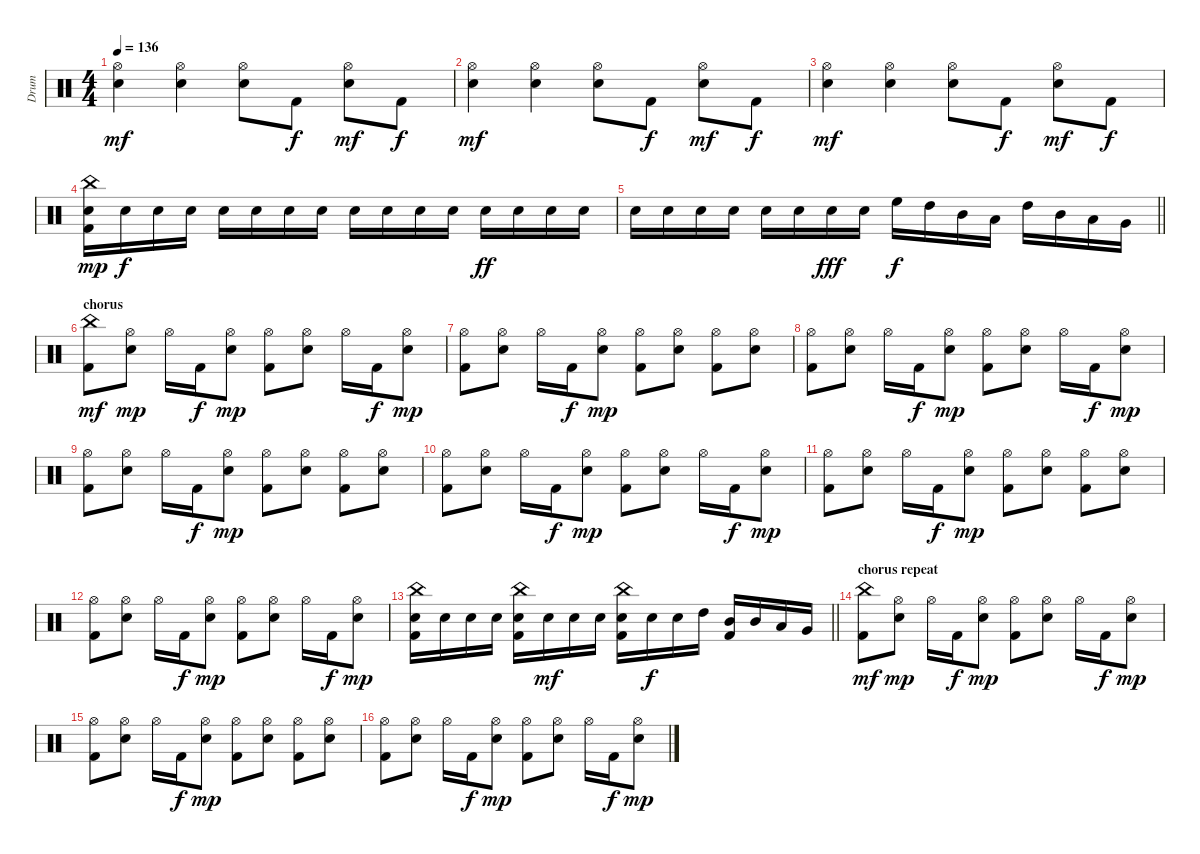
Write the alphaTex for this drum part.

\track ("Drum" "Drum") {instrument percussion}
\staff {score}
\articulation defaults
\ts (4 4)
\tempo 136
\clef neutral
\ks c
("Electric Snare (hit)" "Hi-Hat (open)").4{dy mf} ("Electric Snare (hit)" "Hi-Hat (open)").4 ("Electric Snare (hit)" "Hi-Hat (open)").8 "Kick (hit) 2".8{dy f} ("Electric Snare (hit)" "Hi-Hat (open)").8{dy mf} "Kick (hit) 2".8{dy f} |
("Electric Snare (hit)" "Hi-Hat (open)").4{dy mf} ("Electric Snare (hit)" "Hi-Hat (open)").4 ("Electric Snare (hit)" "Hi-Hat (open)").8 "Kick (hit) 2".8{dy f} ("Electric Snare (hit)" "Hi-Hat (open)").8{dy mf} "Kick (hit) 2".8{dy f} |
("Electric Snare (hit)" "Hi-Hat (open)").4{dy mf} ("Electric Snare (hit)" "Hi-Hat (open)").4 ("Electric Snare (hit)" "Hi-Hat (open)").8 "Kick (hit) 2".8{dy f} ("Electric Snare (hit)" "Hi-Hat (open)").8{dy mf} "Kick (hit) 2".8{dy f} |
("Electric Snare (hit)" "Kick (hit) 2" "China (hit)").16{dy mp} "Electric Snare (hit)".16{dy f} "Electric Snare (hit)".16 "Electric Snare (hit)".16 "Electric Snare (hit)".16 "Electric Snare (hit)".16 "Electric Snare (hit)".16 "Electric Snare (hit)".16 "Electric Snare (hit)".16 "Electric Snare (hit)".16 "Electric Snare (hit)".16 "Electric Snare (hit)".16 "Electric Snare (hit)".16{dy ff} "Electric Snare (hit)".16 "Electric Snare (hit)".16 "Electric Snare (hit)".16 |
\barLineRight lightlight "Electric Snare (hit)".16 "Electric Snare (hit)".16 "Electric Snare (hit)".16 "Electric Snare (hit)".16 "Electric Snare (hit)".16 "Electric Snare (hit)".16 "Electric Snare (hit)".16{dy fff} "Electric Snare (hit)".16 "High Floor Tom (hit)".16{dy f} "High Tom (hit)".16 "Mid Tom (hit)".16 "Low Tom (hit)".16 "High Tom (hit)".16 "Mid Tom (hit)".16 "Low Tom (hit)".16 "Very Low Tom (hit)".16
|
\section ("" "chorus")
("Kick (hit) 2" "China (hit)").8{dy mf} ("Electric Snare (hit)" "Hi-Hat (open)").8{dy mp} "Hi-Hat (open)".16 "Kick (hit) 2".16{dy f} ("Electric Snare (hit)" "Hi-Hat (open)").8{dy mp} ("Kick (hit) 2" "Hi-Hat (open)").8 ("Electric Snare (hit)" "Hi-Hat (open)").8 "Hi-Hat (open)".16 "Kick (hit) 2".16{dy f} ("Electric Snare (hit)" "Hi-Hat (open)").8{dy mp} |
("Kick (hit) 2" "Hi-Hat (open)").8 ("Electric Snare (hit)" "Hi-Hat (open)").8 "Hi-Hat (open)".16 "Kick (hit) 2".16{dy f} ("Electric Snare (hit)" "Hi-Hat (open)").8{dy mp} ("Kick (hit) 2" "Hi-Hat (open)").8 ("Electric Snare (hit)" "Hi-Hat (open)").8 ("Kick (hit) 2" "Hi-Hat (open)").8 ("Electric Snare (hit)" "Hi-Hat (open)").8 |
("Kick (hit) 2" "Hi-Hat (open)").8 ("Electric Snare (hit)" "Hi-Hat (open)").8 "Hi-Hat (open)".16 "Kick (hit) 2".16{dy f} ("Electric Snare (hit)" "Hi-Hat (open)").8{dy mp} ("Kick (hit) 2" "Hi-Hat (open)").8 ("Electric Snare (hit)" "Hi-Hat (open)").8 "Hi-Hat (open)".16 "Kick (hit) 2".16{dy f} ("Electric Snare (hit)" "Hi-Hat (open)").8{dy mp} |
("Kick (hit) 2" "Hi-Hat (open)").8 ("Electric Snare (hit)" "Hi-Hat (open)").8 "Hi-Hat (open)".16 "Kick (hit) 2".16{dy f} ("Electric Snare (hit)" "Hi-Hat (open)").8{dy mp} ("Kick (hit) 2" "Hi-Hat (open)").8 ("Electric Snare (hit)" "Hi-Hat (open)").8 ("Kick (hit) 2" "Hi-Hat (open)").8 ("Electric Snare (hit)" "Hi-Hat (open)").8 |
("Kick (hit) 2" "Hi-Hat (open)").8 ("Electric Snare (hit)" "Hi-Hat (open)").8 "Hi-Hat (open)".16 "Kick (hit) 2".16{dy f} ("Electric Snare (hit)" "Hi-Hat (open)").8{dy mp} ("Kick (hit) 2" "Hi-Hat (open)").8 ("Electric Snare (hit)" "Hi-Hat (open)").8 "Hi-Hat (open)".16 "Kick (hit) 2".16{dy f} ("Electric Snare (hit)" "Hi-Hat (open)").8{dy mp} |
("Kick (hit) 2" "Hi-Hat (open)").8 ("Electric Snare (hit)" "Hi-Hat (open)").8 "Hi-Hat (open)".16 "Kick (hit) 2".16{dy f} ("Electric Snare (hit)" "Hi-Hat (open)").8{dy mp} ("Kick (hit) 2" "Hi-Hat (open)").8 ("Electric Snare (hit)" "Hi-Hat (open)").8 ("Kick (hit) 2" "Hi-Hat (open)").8 ("Electric Snare (hit)" "Hi-Hat (open)").8 |
("Kick (hit) 2" "Hi-Hat (open)").8 ("Electric Snare (hit)" "Hi-Hat (open)").8 "Hi-Hat (open)".16 "Kick (hit) 2".16{dy f} ("Electric Snare (hit)" "Hi-Hat (open)").8{dy mp} ("Kick (hit) 2" "Hi-Hat (open)").8 ("Electric Snare (hit)" "Hi-Hat (open)").8 "Hi-Hat (open)".16 "Kick (hit) 2".16{dy f} ("Electric Snare (hit)" "Hi-Hat (open)").8{dy mp} |
\barLineRight lightlight
("Electric Snare (hit)" "Kick (hit) 2" "China (hit)").16 "Electric Snare (hit)".16 "Electric Snare (hit)".16 "Electric Snare (hit)".16 ("Electric Snare (hit)" "Kick (hit) 2" "China (hit)").16 "Electric Snare (hit)".16{dy mf} "Electric Snare (hit)".16 "Electric Snare (hit)".16 ("Electric Snare (hit)" "Kick (hit) 2" "China (hit)").16 "Electric Snare (hit)".16{dy f} "Electric Snare (hit)".16 "High Tom (hit)".16 ("Mid Tom (hit)" "Kick (hit) 2").16 "Mid Tom (hit)".16 "Low Tom (hit)".16 "Very Low Tom (hit)".16 |
\section ("" "chorus repeat")
("Kick (hit) 2" "China (hit)").8{dy mf} ("Electric Snare (hit)" "Hi-Hat (open)").8{dy mp} "Hi-Hat (open)".16 "Kick (hit) 2".16{dy f} ("Electric Snare (hit)" "Hi-Hat (open)").8{dy mp} ("Kick (hit) 2" "Hi-Hat (open)").8 ("Electric Snare (hit)" "Hi-Hat (open)").8 "Hi-Hat (open)".16 "Kick (hit) 2".16{dy f} ("Electric Snare (hit)" "Hi-Hat (open)").8{dy mp} |
("Kick (hit) 2" "Hi-Hat (open)").8 ("Electric Snare (hit)" "Hi-Hat (open)").8 "Hi-Hat (open)".16 "Kick (hit) 2".16{dy f} ("Electric Snare (hit)" "Hi-Hat (open)").8{dy mp} ("Kick (hit) 2" "Hi-Hat (open)").8 ("Electric Snare (hit)" "Hi-Hat (open)").8 ("Kick (hit) 2" "Hi-Hat (open)").8 ("Electric Snare (hit)" "Hi-Hat (open)").8 |
("Kick (hit) 2" "Hi-Hat (open)").8 ("Electric Snare (hit)" "Hi-Hat (open)").8 "Hi-Hat (open)".16 "Kick (hit) 2".16{dy f} ("Electric Snare (hit)" "Hi-Hat (open)").8{dy mp} ("Kick (hit) 2" "Hi-Hat (open)").8 ("Electric Snare (hit)" "Hi-Hat (open)").8 "Hi-Hat (open)".16 "Kick (hit) 2".16{dy f} ("Electric Snare (hit)" "Hi-Hat (open)").8{dy mp}
